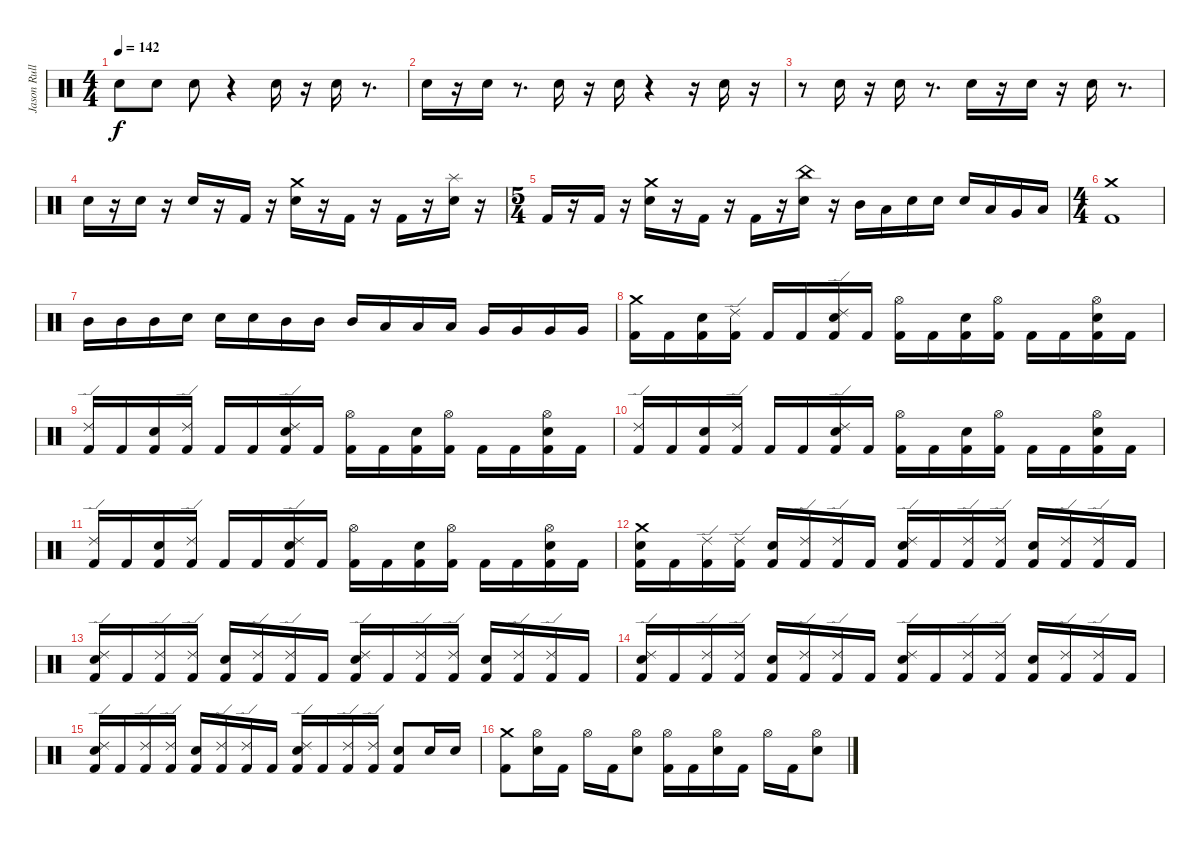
\track ("Jason Rullo (drums)" "Jason Rull") {solo instrument percussion}
\staff {score}
\articulation defaults
\ts (4 4)
\tempo 142
\clef neutral
\ks c "Electric Snare (hit)".8{dy f} "Electric Snare (hit)".8 "Electric Snare (hit)".8
r.4 "Electric Snare (hit)".16 r.16 "Electric Snare (hit)".16 r.8{d} |
"Electric Snare (hit)".16 r.16 "Electric Snare (hit)".16 r.8{d} "Electric Snare (hit)".16 r.16 "Electric Snare (hit)".16 r.4 r.16 "Electric Snare (hit)".16 r.16 |
r.8 "Electric Snare (hit)".16 r.16 "Electric Snare (hit)".16 r.8{d} "Electric Snare (hit)".16 r.16 "Electric Snare (hit)".16 r.16 "Electric Snare (hit)".16 r.8{d} |
"Electric Snare (hit)".16 r.16 "Electric Snare (hit)".16 r.16 "Electric Snare (hit)".16 r.16 "Kick (hit) 2".16 r.16 ("Crash medium (hit)" "Electric Snare (hit)").16 r.16 "Kick (hit) 2".16 r.16 "Kick (hit) 2".16 r.16 ("Splash (hit)" "Electric Snare (hit)").16 r.16 |
\ts (5 4)
"Kick (hit) 2".16 r.16 "Kick (hit) 2".16 r.16 ("Crash medium (hit)" "Electric Snare (hit)").16 r.16 "Kick (hit) 2".16 r.16 "Kick (hit) 2".16 r.16 ("China (hit)" "Electric Snare (hit)").16 r.16 "Mid Tom (hit)".16 "Low Tom (hit)".16 "Electric Snare (hit)".16 "Electric Snare (hit)".16 "Electric Snare (hit)".16 "Low Tom (hit)".16 "Very Low Tom (hit)".16 "Low Floor Tom (hit)".16 |
\ts (4 4)
("Crash medium (hit)" "Kick (hit) 2").1 |
"Mid Tom (hit)".16 "Mid Tom (hit)".16 "Mid Tom (hit)".16 "Electric Snare (hit)".16 "Electric Snare (hit)".16 "Electric Snare (hit)".16 "Mid Tom (hit)".16 "Mid Tom (hit)".16 "Mid Tom (hit)".16 "Low Tom (hit)".16 "Low Tom (hit)".16 "Low Tom (hit)".16 "Very Low Tom (hit)".16 "Very Low Tom (hit)".16 "Very Low Tom (hit)".16 "Very Low Tom (hit)".16 |
("Crash medium (hit)" "Kick (hit) 2").16 "Kick (hit) 2".16 ("Electric Snare (hit)" "Kick (hit) 2").16 ("Ride (edge) 2" "Kick (hit) 2").16 "Kick (hit) 2".16 "Kick (hit) 2".16 ("Ride (edge) 2" "Electric Snare (hit)" "Kick (hit) 2").16 "Kick (hit) 2".16 ("Hi-Hat (open)" "Kick (hit) 2").16 "Kick (hit) 2".16 ("Electric Snare (hit)" "Kick (hit) 2").16 ("Hi-Hat (open)" "Kick (hit) 2").16 "Kick (hit) 2".16 "Kick (hit) 2".16 ("Hi-Hat (open)" "Electric Snare (hit)" "Kick (hit) 2").16 "Kick (hit) 2".16 |
("Ride (edge) 2" "Kick (hit) 2").16 "Kick (hit) 2".16 ("Electric Snare (hit)" "Kick (hit) 2").16 ("Ride (edge) 2" "Kick (hit) 2").16 "Kick (hit) 2".16 "Kick (hit) 2".16 ("Ride (edge) 2" "Electric Snare (hit)" "Kick (hit) 2").16 "Kick (hit) 2".16 ("Hi-Hat (open)" "Kick (hit) 2").16 "Kick (hit) 2".16 ("Electric Snare (hit)" "Kick (hit) 2").16 ("Hi-Hat (open)" "Kick (hit) 2").16 "Kick (hit) 2".16 "Kick (hit) 2".16 ("Hi-Hat (open)" "Electric Snare (hit)" "Kick (hit) 2").16 "Kick (hit) 2".16 |
("Ride (edge) 2" "Kick (hit) 2").16 "Kick (hit) 2".16 ("Electric Snare (hit)" "Kick (hit) 2").16 ("Ride (edge) 2" "Kick (hit) 2").16 "Kick (hit) 2".16 "Kick (hit) 2".16 ("Ride (edge) 2" "Electric Snare (hit)" "Kick (hit) 2").16 "Kick (hit) 2".16 ("Hi-Hat (open)" "Kick (hit) 2").16 "Kick (hit) 2".16 ("Electric Snare (hit)" "Kick (hit) 2").16 ("Hi-Hat (open)" "Kick (hit) 2").16 "Kick (hit) 2".16 "Kick (hit) 2".16 ("Hi-Hat (open)" "Electric Snare (hit)" "Kick (hit) 2").16 "Kick (hit) 2".16 |
("Ride (edge) 2" "Kick (hit) 2").16 "Kick (hit) 2".16 ("Electric Snare (hit)" "Kick (hit) 2").16 ("Ride (edge) 2" "Kick (hit) 2").16 "Kick (hit) 2".16 "Kick (hit) 2".16 ("Ride (edge) 2" "Electric Snare (hit)" "Kick (hit) 2").16 "Kick (hit) 2".16 ("Hi-Hat (open)" "Kick (hit) 2").16 "Kick (hit) 2".16 ("Electric Snare (hit)" "Kick (hit) 2").16 ("Hi-Hat (open)" "Kick (hit) 2").16 "Kick (hit) 2".16 "Kick (hit) 2".16 ("Hi-Hat (open)" "Electric Snare (hit)" "Kick (hit) 2").16 "Kick (hit) 2".16 |
("Crash medium (hit)" "Electric Snare (hit)" "Kick (hit) 2").16 "Kick (hit) 2".16 ("Kick (hit) 2" "Ride (edge) 2").16 ("Kick (hit) 2" "Ride (edge) 2").16 ("Electric Snare (hit)" "Kick (hit) 2").16 ("Kick (hit) 2" "Ride (edge) 2").16 ("Kick (hit) 2" "Ride (edge) 2").16 "Kick (hit) 2".16 ("Electric Snare (hit)" "Kick (hit) 2" "Ride (edge) 2").16 "Kick (hit) 2".16 ("Kick (hit) 2" "Ride (edge) 2").16 ("Kick (hit) 2" "Ride (edge) 2").16 ("Electric Snare (hit)" "Kick (hit) 2").16 ("Kick (hit) 2" "Ride (edge) 2").16 ("Kick (hit) 2" "Ride (edge) 2").16 "Kick (hit) 2".16 |
("Electric Snare (hit)" "Kick (hit) 2" "Ride (edge) 2").16 "Kick (hit) 2".16 ("Kick (hit) 2" "Ride (edge) 2").16 ("Kick (hit) 2" "Ride (edge) 2").16 ("Electric Snare (hit)" "Kick (hit) 2").16 ("Kick (hit) 2" "Ride (edge) 2").16 ("Kick (hit) 2" "Ride (edge) 2").16 "Kick (hit) 2".16 ("Electric Snare (hit)" "Kick (hit) 2" "Ride (edge) 2").16 "Kick (hit) 2".16 ("Kick (hit) 2" "Ride (edge) 2").16 ("Kick (hit) 2" "Ride (edge) 2").16 ("Electric Snare (hit)" "Kick (hit) 2").16 ("Kick (hit) 2" "Ride (edge) 2").16 ("Kick (hit) 2" "Ride (edge) 2").16 "Kick (hit) 2".16 |
("Electric Snare (hit)" "Kick (hit) 2" "Ride (edge) 2").16 "Kick (hit) 2".16 ("Kick (hit) 2" "Ride (edge) 2").16 ("Kick (hit) 2" "Ride (edge) 2").16 ("Electric Snare (hit)" "Kick (hit) 2").16 ("Kick (hit) 2" "Ride (edge) 2").16 ("Kick (hit) 2" "Ride (edge) 2").16 "Kick (hit) 2".16 ("Electric Snare (hit)" "Kick (hit) 2" "Ride (edge) 2").16 "Kick (hit) 2".16 ("Kick (hit) 2" "Ride (edge) 2").16 ("Kick (hit) 2" "Ride (edge) 2").16 ("Electric Snare (hit)" "Kick (hit) 2").16 ("Kick (hit) 2" "Ride (edge) 2").16 ("Kick (hit) 2" "Ride (edge) 2").16 "Kick (hit) 2".16 |
("Electric Snare (hit)" "Kick (hit) 2" "Ride (edge) 2").16 "Kick (hit) 2".16 ("Kick (hit) 2" "Ride (edge) 2").16 ("Kick (hit) 2" "Ride (edge) 2").16 ("Electric Snare (hit)" "Kick (hit) 2").16 ("Kick (hit) 2" "Ride (edge) 2").16 ("Kick (hit) 2" "Ride (edge) 2").16 "Kick (hit) 2".16 ("Electric Snare (hit)" "Kick (hit) 2" "Ride (edge) 2").16 "Kick (hit) 2".16 ("Kick (hit) 2" "Ride (edge) 2").16 ("Kick (hit) 2" "Ride (edge) 2").16 ("Electric Snare (hit)" "Kick (hit) 2").8 "Electric Snare (hit)".16 "Electric Snare (hit)".16 |
("Crash medium (hit)" "Kick (hit) 2").8 ("Hi-Hat (open)" "Electric Snare (hit)").16 "Kick (hit) 2".16 "Hi-Hat (open)".16 "Kick (hit) 2".16 ("Hi-Hat (open)" "Electric Snare (hit)").8 ("Hi-Hat (open)" "Kick (hit) 2").16 "Kick (hit) 2".16 ("Hi-Hat (open)" "Electric Snare (hit)").16 "Kick (hit) 2".16 "Hi-Hat (open)".16 "Kick (hit) 2".16 ("Hi-Hat (open)" "Electric Snare (hit)").8
